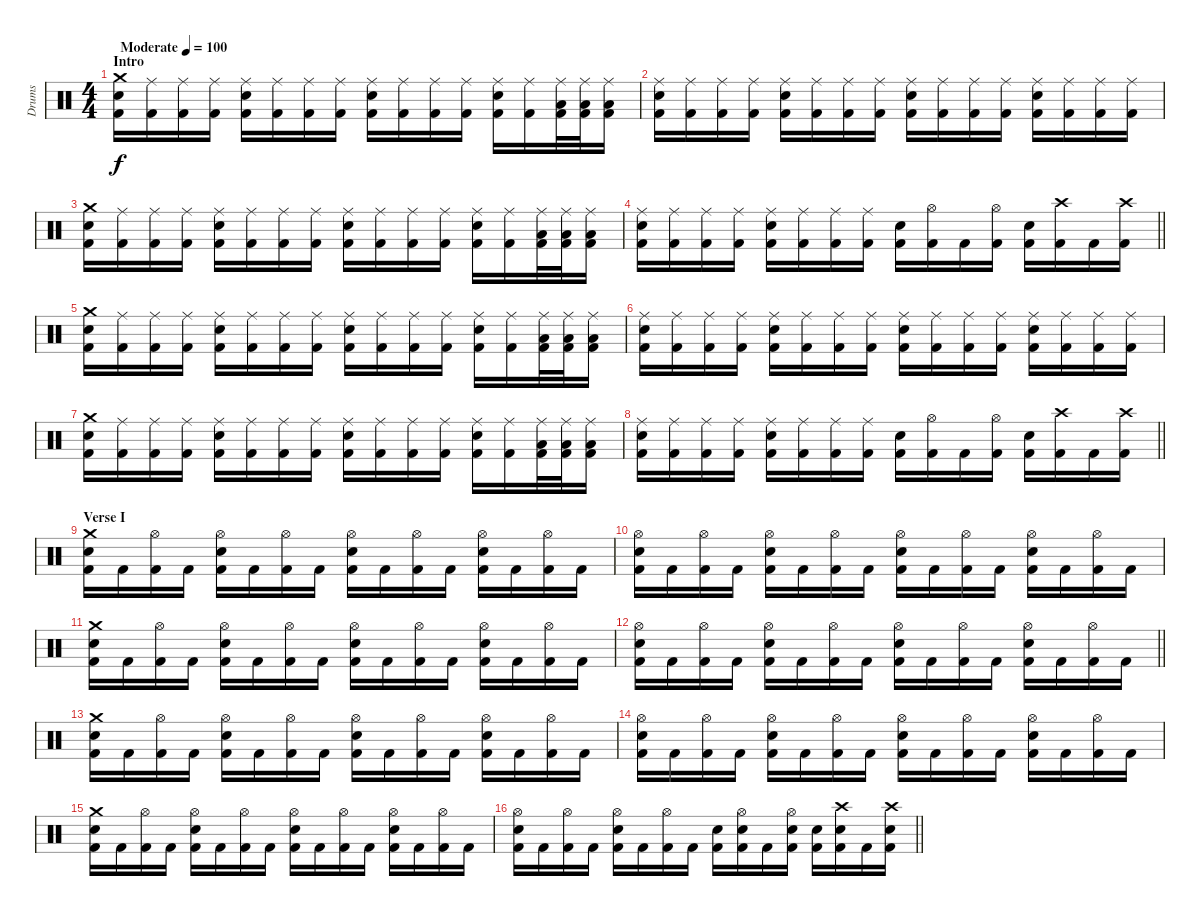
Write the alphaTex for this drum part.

\track ("Drums" "Drums") {instrument percussion}
\staff {score}
\articulation defaults
\ts (4 4)
\section ("" "Intro")
\tempo (100 "Moderate")
\clef neutral
\ks c
("Crash medium (hit)" "Snare (hit) 2" "Kick (hit) 2").16{dy f} ("Ride (middle)" "Kick (hit) 2").16 ("Ride (middle)" "Kick (hit) 2").16 ("Ride (middle)" "Kick (hit) 2").16 ("Ride (middle)" "Snare (hit) 2" "Kick (hit) 2").16 ("Ride (middle)" "Kick (hit) 2").16 ("Ride (middle)" "Kick (hit) 2").16 ("Ride (middle)" "Kick (hit) 2").16 ("Ride (middle)" "Snare (hit) 2" "Kick (hit) 2").16 ("Ride (middle)" "Kick (hit) 2").16 ("Ride (middle)" "Kick (hit) 2").16 ("Ride (middle)" "Kick (hit) 2").16 ("Ride (middle)" "Snare (hit) 2" "Kick (hit) 2").16 ("Ride (middle)" "Kick (hit) 2").16 ("Ride (middle)" "Low Tom (hit)" "Kick (hit) 2").32 ("Ride (middle)" "Low Tom (hit)" "Kick (hit) 2").32 ("Ride (middle)" "Low Tom (hit)" "Kick (hit) 2").16 |
("Ride (middle)" "Snare (hit) 2" "Kick (hit) 2").16 ("Ride (middle)" "Kick (hit) 2").16 ("Ride (middle)" "Kick (hit) 2").16 ("Ride (middle)" "Kick (hit) 2").16 ("Ride (middle)" "Snare (hit) 2" "Kick (hit) 2").16 ("Ride (middle)" "Kick (hit) 2").16 ("Ride (middle)" "Kick (hit) 2").16 ("Ride (middle)" "Kick (hit) 2").16 ("Ride (middle)" "Snare (hit) 2" "Kick (hit) 2").16 ("Ride (middle)" "Kick (hit) 2").16 ("Ride (middle)" "Kick (hit) 2").16 ("Ride (middle)" "Kick (hit) 2").16 ("Ride (middle)" "Snare (hit) 2" "Kick (hit) 2").16 ("Ride (middle)" "Kick (hit) 2").16 ("Ride (middle)" "Kick (hit) 2").16 ("Ride (middle)" "Kick (hit) 2").16 |
("Crash medium (hit)" "Snare (hit) 2" "Kick (hit) 2").16 ("Ride (middle)" "Kick (hit) 2").16 ("Ride (middle)" "Kick (hit) 2").16 ("Ride (middle)" "Kick (hit) 2").16 ("Ride (middle)" "Snare (hit) 2" "Kick (hit) 2").16 ("Ride (middle)" "Kick (hit) 2").16 ("Ride (middle)" "Kick (hit) 2").16 ("Ride (middle)" "Kick (hit) 2").16 ("Ride (middle)" "Snare (hit) 2" "Kick (hit) 2").16 ("Ride (middle)" "Kick (hit) 2").16 ("Ride (middle)" "Kick (hit) 2").16 ("Ride (middle)" "Kick (hit) 2").16 ("Ride (middle)" "Snare (hit) 2" "Kick (hit) 2").16 ("Ride (middle)" "Kick (hit) 2").16 ("Ride (middle)" "Low Tom (hit)" "Kick (hit) 2").32 ("Ride (middle)" "Low Tom (hit)" "Kick (hit) 2").32 ("Ride (middle)" "Low Tom (hit)" "Kick (hit) 2").16 |
\barLineRight lightlight
("Ride (middle)" "Snare (hit) 2" "Kick (hit) 2").16 ("Ride (middle)" "Kick (hit) 2").16 ("Ride (middle)" "Kick (hit) 2").16 ("Ride (middle)" "Kick (hit) 2").16 ("Ride (middle)" "Snare (hit) 2" "Kick (hit) 2").16 ("Ride (middle)" "Kick (hit) 2").16 ("Ride (middle)" "Kick (hit) 2").16 ("Ride (middle)" "Kick (hit) 2").16 ("Snare (hit) 2" "Kick (hit) 2").16 ("Hi-Hat (open)" "Kick (hit) 2").16 "Kick (hit) 2".16 ("Hi-Hat (open)" "Kick (hit) 2").16 ("Snare (hit) 2" "Kick (hit) 2").16 ("Crash high (hit)" "Kick (hit) 2").16 "Kick (hit) 2".16 ("Crash high (hit)" "Kick (hit) 2").16 |
("Crash medium (hit)" "Snare (hit) 2" "Kick (hit) 2").16 ("Ride (middle)" "Kick (hit) 2").16 ("Ride (middle)" "Kick (hit) 2").16 ("Ride (middle)" "Kick (hit) 2").16 ("Ride (middle)" "Snare (hit) 2" "Kick (hit) 2").16 ("Ride (middle)" "Kick (hit) 2").16 ("Ride (middle)" "Kick (hit) 2").16 ("Ride (middle)" "Kick (hit) 2").16 ("Ride (middle)" "Snare (hit) 2" "Kick (hit) 2").16 ("Ride (middle)" "Kick (hit) 2").16 ("Ride (middle)" "Kick (hit) 2").16 ("Ride (middle)" "Kick (hit) 2").16 ("Ride (middle)" "Snare (hit) 2" "Kick (hit) 2").16 ("Ride (middle)" "Kick (hit) 2").16 ("Ride (middle)" "Low Tom (hit)" "Kick (hit) 2").32 ("Ride (middle)" "Low Tom (hit)" "Kick (hit) 2").32 ("Ride (middle)" "Low Tom (hit)" "Kick (hit) 2").16 |
("Ride (middle)" "Snare (hit) 2" "Kick (hit) 2").16 ("Ride (middle)" "Kick (hit) 2").16 ("Ride (middle)" "Kick (hit) 2").16 ("Ride (middle)" "Kick (hit) 2").16 ("Ride (middle)" "Snare (hit) 2" "Kick (hit) 2").16 ("Ride (middle)" "Kick (hit) 2").16 ("Ride (middle)" "Kick (hit) 2").16 ("Ride (middle)" "Kick (hit) 2").16 ("Ride (middle)" "Snare (hit) 2" "Kick (hit) 2").16 ("Ride (middle)" "Kick (hit) 2").16 ("Ride (middle)" "Kick (hit) 2").16 ("Ride (middle)" "Kick (hit) 2").16 ("Ride (middle)" "Snare (hit) 2" "Kick (hit) 2").16 ("Ride (middle)" "Kick (hit) 2").16 ("Ride (middle)" "Kick (hit) 2").16 ("Ride (middle)" "Kick (hit) 2").16 |
("Crash medium (hit)" "Snare (hit) 2" "Kick (hit) 2").16 ("Ride (middle)" "Kick (hit) 2").16 ("Ride (middle)" "Kick (hit) 2").16 ("Ride (middle)" "Kick (hit) 2").16 ("Ride (middle)" "Snare (hit) 2" "Kick (hit) 2").16 ("Ride (middle)" "Kick (hit) 2").16 ("Ride (middle)" "Kick (hit) 2").16 ("Ride (middle)" "Kick (hit) 2").16 ("Ride (middle)" "Snare (hit) 2" "Kick (hit) 2").16 ("Ride (middle)" "Kick (hit) 2").16 ("Ride (middle)" "Kick (hit) 2").16 ("Ride (middle)" "Kick (hit) 2").16 ("Ride (middle)" "Snare (hit) 2" "Kick (hit) 2").16 ("Ride (middle)" "Kick (hit) 2").16 ("Ride (middle)" "Low Tom (hit)" "Kick (hit) 2").32 ("Ride (middle)" "Low Tom (hit)" "Kick (hit) 2").32 ("Ride (middle)" "Low Tom (hit)" "Kick (hit) 2").16 |
\barLineRight lightlight
("Ride (middle)" "Snare (hit) 2" "Kick (hit) 2").16 ("Ride (middle)" "Kick (hit) 2").16 ("Ride (middle)" "Kick (hit) 2").16 ("Ride (middle)" "Kick (hit) 2").16 ("Ride (middle)" "Snare (hit) 2" "Kick (hit) 2").16 ("Ride (middle)" "Kick (hit) 2").16 ("Ride (middle)" "Kick (hit) 2").16 ("Ride (middle)" "Kick (hit) 2").16 ("Snare (hit) 2" "Kick (hit) 2").16 ("Hi-Hat (open)" "Kick (hit) 2").16 "Kick (hit) 2".16 ("Hi-Hat (open)" "Kick (hit) 2").16 ("Snare (hit) 2" "Kick (hit) 2").16 ("Crash high (hit)" "Kick (hit) 2").16 "Kick (hit) 2".16 ("Crash high (hit)" "Kick (hit) 2").16 |
\section ("" "Verse I")
("Crash medium (hit)" "Snare (hit) 2" "Kick (hit) 2").16 "Kick (hit) 2".16 ("Hi-Hat (open)" "Kick (hit) 2").16 "Kick (hit) 2".16 ("Hi-Hat (open)" "Snare (hit) 2" "Kick (hit) 2").16 "Kick (hit) 2".16 ("Hi-Hat (open)" "Kick (hit) 2").16 "Kick (hit) 2".16 ("Hi-Hat (open)" "Snare (hit) 2" "Kick (hit) 2").16 "Kick (hit) 2".16 ("Hi-Hat (open)" "Kick (hit) 2").16 "Kick (hit) 2".16 ("Hi-Hat (open)" "Snare (hit) 2" "Kick (hit) 2").16 "Kick (hit) 2".16 ("Hi-Hat (open)" "Kick (hit) 2").16 "Kick (hit) 2".16 |
("Hi-Hat (open)" "Snare (hit) 2" "Kick (hit) 2").16 "Kick (hit) 2".16 ("Hi-Hat (open)" "Kick (hit) 2").16 "Kick (hit) 2".16 ("Hi-Hat (open)" "Snare (hit) 2" "Kick (hit) 2").16 "Kick (hit) 2".16 ("Hi-Hat (open)" "Kick (hit) 2").16 "Kick (hit) 2".16 ("Hi-Hat (open)" "Snare (hit) 2" "Kick (hit) 2").16 "Kick (hit) 2".16 ("Hi-Hat (open)" "Kick (hit) 2").16 "Kick (hit) 2".16 ("Hi-Hat (open)" "Snare (hit) 2" "Kick (hit) 2").16 "Kick (hit) 2".16 ("Hi-Hat (open)" "Kick (hit) 2").16 "Kick (hit) 2".16 |
("Crash medium (hit)" "Snare (hit) 2" "Kick (hit) 2").16 "Kick (hit) 2".16 ("Hi-Hat (open)" "Kick (hit) 2").16 "Kick (hit) 2".16 ("Hi-Hat (open)" "Snare (hit) 2" "Kick (hit) 2").16 "Kick (hit) 2".16 ("Hi-Hat (open)" "Kick (hit) 2").16 "Kick (hit) 2".16 ("Hi-Hat (open)" "Snare (hit) 2" "Kick (hit) 2").16 "Kick (hit) 2".16 ("Hi-Hat (open)" "Kick (hit) 2").16 "Kick (hit) 2".16 ("Hi-Hat (open)" "Snare (hit) 2" "Kick (hit) 2").16 "Kick (hit) 2".16 ("Hi-Hat (open)" "Kick (hit) 2").16 "Kick (hit) 2".16 |
\barLineRight lightlight
("Hi-Hat (open)" "Snare (hit) 2" "Kick (hit) 2").16 "Kick (hit) 2".16 ("Hi-Hat (open)" "Kick (hit) 2").16 "Kick (hit) 2".16 ("Hi-Hat (open)" "Snare (hit) 2" "Kick (hit) 2").16 "Kick (hit) 2".16 ("Hi-Hat (open)" "Kick (hit) 2").16 "Kick (hit) 2".16 ("Hi-Hat (open)" "Snare (hit) 2" "Kick (hit) 2").16 "Kick (hit) 2".16 ("Hi-Hat (open)" "Kick (hit) 2").16 "Kick (hit) 2".16 ("Hi-Hat (open)" "Snare (hit) 2" "Kick (hit) 2").16 "Kick (hit) 2".16 ("Hi-Hat (open)" "Kick (hit) 2").16 "Kick (hit) 2".16 |
("Crash medium (hit)" "Snare (hit) 2" "Kick (hit) 2").16 "Kick (hit) 2".16 ("Hi-Hat (open)" "Kick (hit) 2").16 "Kick (hit) 2".16 ("Hi-Hat (open)" "Snare (hit) 2" "Kick (hit) 2").16 "Kick (hit) 2".16 ("Hi-Hat (open)" "Kick (hit) 2").16 "Kick (hit) 2".16 ("Hi-Hat (open)" "Snare (hit) 2" "Kick (hit) 2").16 "Kick (hit) 2".16 ("Hi-Hat (open)" "Kick (hit) 2").16 "Kick (hit) 2".16 ("Hi-Hat (open)" "Snare (hit) 2" "Kick (hit) 2").16 "Kick (hit) 2".16 ("Hi-Hat (open)" "Kick (hit) 2").16 "Kick (hit) 2".16 |
("Hi-Hat (open)" "Snare (hit) 2" "Kick (hit) 2").16 "Kick (hit) 2".16 ("Hi-Hat (open)" "Kick (hit) 2").16 "Kick (hit) 2".16 ("Hi-Hat (open)" "Snare (hit) 2" "Kick (hit) 2").16 "Kick (hit) 2".16 ("Hi-Hat (open)" "Kick (hit) 2").16 "Kick (hit) 2".16 ("Hi-Hat (open)" "Snare (hit) 2" "Kick (hit) 2").16 "Kick (hit) 2".16 ("Hi-Hat (open)" "Kick (hit) 2").16 "Kick (hit) 2".16 ("Hi-Hat (open)" "Snare (hit) 2" "Kick (hit) 2").16 "Kick (hit) 2".16 ("Hi-Hat (open)" "Kick (hit) 2").16 "Kick (hit) 2".16 |
("Crash medium (hit)" "Snare (hit) 2" "Kick (hit) 2").16 "Kick (hit) 2".16 ("Hi-Hat (open)" "Kick (hit) 2").16 "Kick (hit) 2".16 ("Hi-Hat (open)" "Snare (hit) 2" "Kick (hit) 2").16 "Kick (hit) 2".16 ("Hi-Hat (open)" "Kick (hit) 2").16 "Kick (hit) 2".16 ("Hi-Hat (open)" "Snare (hit) 2" "Kick (hit) 2").16 "Kick (hit) 2".16 ("Hi-Hat (open)" "Kick (hit) 2").16 "Kick (hit) 2".16 ("Hi-Hat (open)" "Snare (hit) 2" "Kick (hit) 2").16 "Kick (hit) 2".16 ("Hi-Hat (open)" "Kick (hit) 2").16 "Kick (hit) 2".16 |
\barLineRight lightlight
("Hi-Hat (open)" "Snare (hit) 2" "Kick (hit) 2").16 "Kick (hit) 2".16 ("Hi-Hat (open)" "Kick (hit) 2").16 "Kick (hit) 2".16 ("Hi-Hat (open)" "Snare (hit) 2" "Kick (hit) 2").16 "Kick (hit) 2".16 ("Hi-Hat (open)" "Kick (hit) 2").16 "Kick (hit) 2".16 ("Snare (hit) 2" "Kick (hit) 2").16 ("Hi-Hat (open)" "Snare (hit) 2" "Kick (hit) 2").16 "Kick (hit) 2".16 ("Hi-Hat (open)" "Snare (hit) 2" "Kick (hit) 2").16 ("Snare (hit) 2" "Kick (hit) 2").16 ("Crash high (hit)" "Snare (hit) 2" "Kick (hit) 2").16 "Kick (hit) 2".16 ("Crash high (hit)" "Snare (hit) 2" "Kick (hit) 2").16
